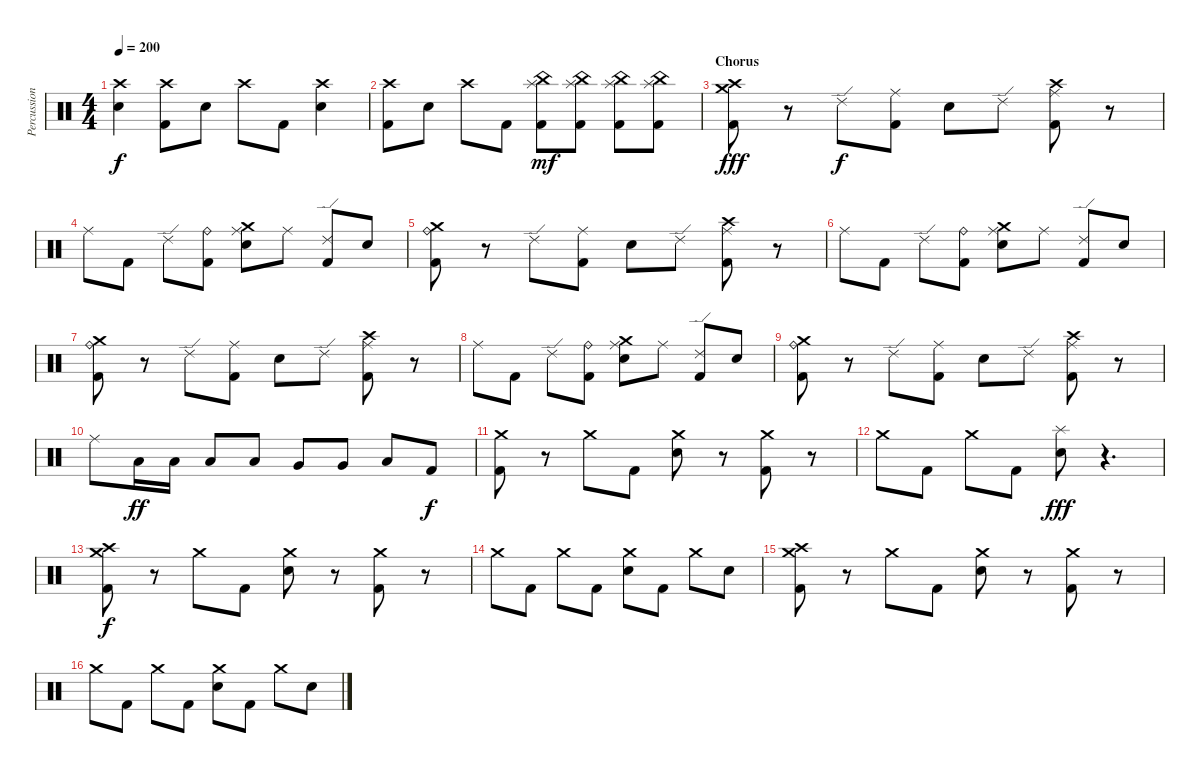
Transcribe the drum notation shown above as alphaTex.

\track ("Percussions" "Percussion") {instrument percussion}
\staff {score}
\articulation defaults
\ts (4 4)
\tempo 200
\clef neutral
\ks c
("Crash high (hit)" "Electric Snare (hit)").4{dy f} ("Crash high (hit)" "Kick (hit) 2").8 "Electric Snare (hit)".8 "Crash high (hit)".8 "Kick (hit) 2".8 ("Crash high (hit)" "Electric Snare (hit)").4 |
("Crash high (hit)" "Kick (hit) 2").8 "Electric Snare (hit)".8 "Crash high (hit)".8 "Kick (hit) 2".8 ("China (hit)" "Splash (hit)" "Kick (hit) 2").8{dy mf} ("China (hit)" "Splash (hit)" "Kick (hit) 2").8 ("China (hit)" "Splash (hit)" "Kick (hit) 2").8 ("China (hit)" "Splash (hit)" "Kick (hit) 2").8 |
\section ("" "Chorus")
("Crash medium (hit)" "Crash high (hit)" "Kick (hit) 2").8{dy fff} r.8 "Ride (edge) 2".8{dy f} ("Ride (middle)" "Kick (hit) 2").8 "Electric Snare (hit)".8 "Ride (edge) 2".8 ("Crash high (hit)" "Ride (middle)" "Kick (hit) 2").8 r.8 |
"Ride (middle)".8 "Kick (hit) 2".8 "Ride (edge) 2".8 ("Ride (bell)" "Kick (hit) 2").8 ("Crash medium (hit)" "Ride (middle)" "Electric Snare (hit)").8 "Ride (middle)".8 ("Ride (edge) 2" "Kick (hit) 2").8 "Electric Snare (hit)".8 |
("Crash medium (hit)" "Ride (bell)" "Kick (hit) 2").8 r.8 "Ride (edge) 2".8 ("Ride (middle)" "Kick (hit) 2").8 "Electric Snare (hit)".8 "Ride (edge) 2".8 ("Crash high (hit)" "Ride (middle)" "Kick (hit) 2").8 r.8 |
"Ride (middle)".8 "Kick (hit) 2".8 "Ride (edge) 2".8 ("Ride (bell)" "Kick (hit) 2").8 ("Crash medium (hit)" "Ride (middle)" "Electric Snare (hit)").8 "Ride (middle)".8 ("Ride (edge) 2" "Kick (hit) 2").8 "Electric Snare (hit)".8 |
("Crash medium (hit)" "Ride (bell)" "Kick (hit) 2").8 r.8 "Ride (edge) 2".8 ("Ride (middle)" "Kick (hit) 2").8 "Electric Snare (hit)".8 "Ride (edge) 2".8 ("Crash high (hit)" "Ride (middle)" "Kick (hit) 2").8 r.8 |
"Ride (middle)".8 "Kick (hit) 2".8 "Ride (edge) 2".8 ("Ride (bell)" "Kick (hit) 2").8 ("Crash medium (hit)" "Ride (middle)" "Electric Snare (hit)").8 "Ride (middle)".8 ("Ride (edge) 2" "Kick (hit) 2").8 "Electric Snare (hit)".8 |
("Crash medium (hit)" "Ride (bell)" "Kick (hit) 2").8 r.8 "Ride (edge) 2".8 ("Ride (middle)" "Kick (hit) 2").8 "Electric Snare (hit)".8 "Ride (edge) 2".8 ("Crash high (hit)" "Ride (middle)" "Kick (hit) 2").8 r.8 |
"Ride (middle)".8 "Low Tom (hit)".16{dy ff} "Low Tom (hit)".16 "Low Tom (hit)".8 "Low Tom (hit)".8 "Very Low Tom (hit)".8 "Very Low Tom (hit)".8 "Low Floor Tom (hit)".8 "Kick (hit) 2".8{dy f} |
("Crash medium (hit)" "Kick (hit) 2").8 r.8 "Crash medium (hit)".8 "Kick (hit) 2".8 ("Crash medium (hit)" "Electric Snare (hit)").8 r.8 ("Crash medium (hit)" "Kick (hit) 2").8 r.8 |
"Crash medium (hit)".8 "Kick (hit) 2".8 "Crash medium (hit)".8 "Kick (hit) 2".8 ("Splash (hit)" "Electric Snare (hit)").8{dy fff} r.4{d} |
("Crash high (hit)" "Crash medium (hit)" "Kick (hit) 2").8{dy f} r.8 "Crash medium (hit)".8 "Kick (hit) 2".8 ("Crash medium (hit)" "Electric Snare (hit)").8 r.8 ("Crash medium (hit)" "Kick (hit) 2").8 r.8 |
"Crash medium (hit)".8 "Kick (hit) 2".8 "Crash medium (hit)".8 "Kick (hit) 2".8 ("Crash medium (hit)" "Electric Snare (hit)").8 "Kick (hit) 2".8 "Crash medium (hit)".8 "Electric Snare (hit)".8 |
("Crash high (hit)" "Crash medium (hit)" "Kick (hit) 2").8 r.8 "Crash medium (hit)".8 "Kick (hit) 2".8 ("Crash medium (hit)" "Electric Snare (hit)").8 r.8 ("Crash medium (hit)" "Kick (hit) 2").8 r.8 |
"Crash medium (hit)".8 "Kick (hit) 2".8 "Crash medium (hit)".8 "Kick (hit) 2".8 ("Crash medium (hit)" "Electric Snare (hit)").8 "Kick (hit) 2".8 "Crash medium (hit)".8 "Electric Snare (hit)".8
